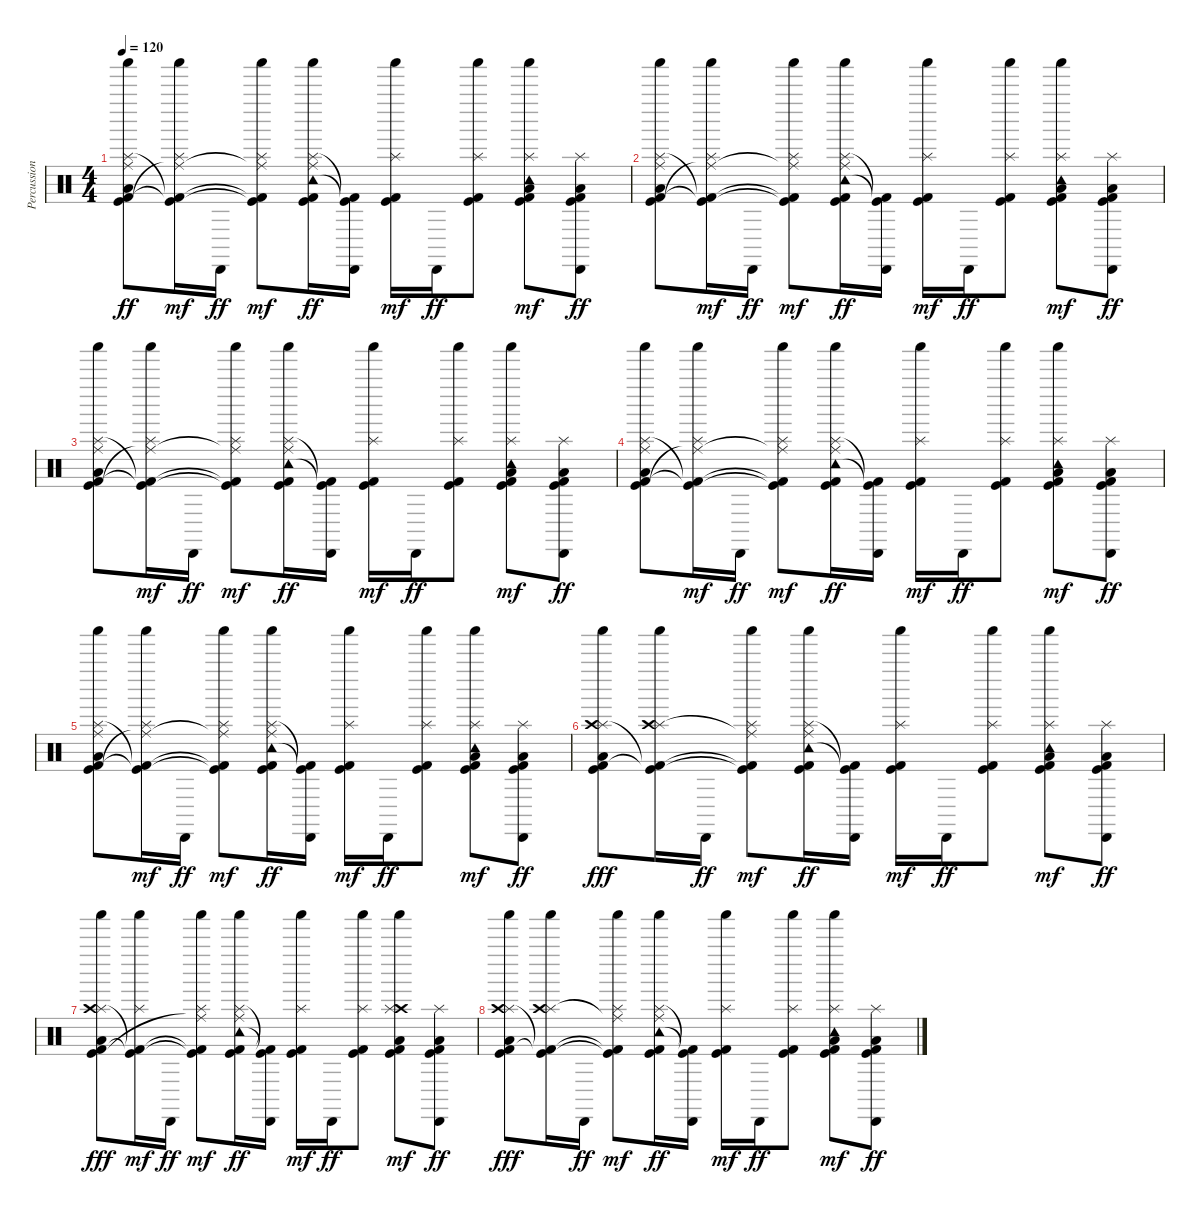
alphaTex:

\track ("Percussion" "Percussion") {instrument percussion}
\staff {score}
\articulation defaults
\ts (4 4)
\tempo 120
\clef neutral
\ks c
("Shaker (hit)" "Low Tom (hit)" "Splash (hit)" "Kick (hit) 2" "Kick (hit)" "Ride (middle)").8{dy ff} ("Shaker (hit)" "Splash (hit)" "Kick (hit) 2"{t} "Kick (hit)"{t} "Ride (middle)"{t}).16{dy mf} "Cabasa (hit)".16{dy ff} ("Shaker (hit)" "Splash (hit)" "Kick (hit) 2"{t} "Kick (hit)"{t} "Ride (middle)"{t}).8{dy mf} ("Shaker (hit)" "Tambourine (hit)" "Splash (hit)" "Ride (middle)" "Kick (hit) 2" "Kick (hit)").16{dy ff} ("Cabasa (hit)" "Kick (hit)"{t} "Kick (hit) 2"{t}).16 ("Shaker (hit)" "Splash (hit)" "Kick (hit)" "Kick (hit) 2").16{dy mf} "Cabasa (hit)".16{dy ff} ("Shaker (hit)" "Splash (hit)" "Kick (hit)" "Kick (hit) 2").8 ("Shaker (hit)" "Tambourine (hit)" "Splash (hit)" "Low Tom (hit)" "Kick (hit) 2" "Kick (hit)").8{dy mf} ("Cabasa (hit)" "Splash (hit)" "Low Tom (hit)" "Kick (hit)" "Kick (hit) 2").8{dy ff} |
("Shaker (hit)" "Low Tom (hit)" "Splash (hit)" "Kick (hit) 2" "Kick (hit)" "Ride (middle)").8 ("Shaker (hit)" "Splash (hit)" "Kick (hit) 2"{t} "Kick (hit)"{t} "Ride (middle)"{t}).16{dy mf} "Cabasa (hit)".16{dy ff} ("Shaker (hit)" "Splash (hit)" "Kick (hit) 2"{t} "Kick (hit)"{t} "Ride (middle)"{t}).8{dy mf} ("Shaker (hit)" "Tambourine (hit)" "Splash (hit)" "Ride (middle)" "Kick (hit) 2" "Kick (hit)").16{dy ff} ("Cabasa (hit)" "Kick (hit)"{t} "Kick (hit) 2"{t}).16 ("Shaker (hit)" "Splash (hit)" "Kick (hit)" "Kick (hit) 2").16{dy mf} "Cabasa (hit)".16{dy ff} ("Shaker (hit)" "Splash (hit)" "Kick (hit)" "Kick (hit) 2").8 ("Shaker (hit)" "Tambourine (hit)" "Splash (hit)" "Low Tom (hit)" "Kick (hit) 2" "Kick (hit)").8{dy mf} ("Cabasa (hit)" "Splash (hit)" "Low Tom (hit)" "Kick (hit)" "Kick (hit) 2").8{dy ff} |
("Shaker (hit)" "Low Tom (hit)" "Splash (hit)" "Kick (hit) 2" "Kick (hit)" "Ride (middle)").8 ("Shaker (hit)" "Splash (hit)" "Kick (hit) 2"{t} "Kick (hit)"{t} "Ride (middle)"{t}).16{dy mf} "Cabasa (hit)".16{dy ff} ("Shaker (hit)" "Splash (hit)" "Kick (hit) 2"{t} "Kick (hit)"{t} "Ride (middle)"{t}).8{dy mf} ("Shaker (hit)" "Tambourine (hit)" "Splash (hit)" "Ride (middle)" "Kick (hit) 2" "Kick (hit)").16{dy ff} ("Cabasa (hit)" "Kick (hit)"{t} "Kick (hit) 2"{t}).16 ("Shaker (hit)" "Splash (hit)" "Kick (hit)" "Kick (hit) 2").16{dy mf} "Cabasa (hit)".16{dy ff} ("Shaker (hit)" "Splash (hit)" "Kick (hit)" "Kick (hit) 2").8 ("Shaker (hit)" "Tambourine (hit)" "Splash (hit)" "Low Tom (hit)" "Kick (hit) 2" "Kick (hit)").8{dy mf} ("Cabasa (hit)" "Splash (hit)" "Low Tom (hit)" "Kick (hit)" "Kick (hit) 2").8{dy ff} |
("Shaker (hit)" "Low Tom (hit)" "Splash (hit)" "Kick (hit) 2" "Kick (hit)" "Ride (middle)").8 ("Shaker (hit)" "Splash (hit)" "Kick (hit) 2"{t} "Kick (hit)"{t} "Ride (middle)"{t}).16{dy mf} "Cabasa (hit)".16{dy ff} ("Shaker (hit)" "Splash (hit)" "Kick (hit) 2"{t} "Kick (hit)"{t} "Ride (middle)"{t}).8{dy mf} ("Shaker (hit)" "Tambourine (hit)" "Splash (hit)" "Ride (middle)" "Kick (hit) 2" "Kick (hit)").16{dy ff} ("Cabasa (hit)" "Kick (hit)"{t} "Kick (hit) 2"{t}).16 ("Shaker (hit)" "Splash (hit)" "Kick (hit)" "Kick (hit) 2").16{dy mf} "Cabasa (hit)".16{dy ff} ("Shaker (hit)" "Splash (hit)" "Kick (hit)" "Kick (hit) 2").8 ("Shaker (hit)" "Tambourine (hit)" "Splash (hit)" "Low Tom (hit)" "Kick (hit) 2" "Kick (hit)").8{dy mf} ("Cabasa (hit)" "Splash (hit)" "Low Tom (hit)" "Kick (hit)" "Kick (hit) 2").8{dy ff} |
("Shaker (hit)" "Low Tom (hit)" "Splash (hit)" "Kick (hit) 2" "Kick (hit)" "Ride (middle)").8 ("Shaker (hit)" "Splash (hit)" "Kick (hit) 2"{t} "Kick (hit)"{t} "Ride (middle)"{t}).16{dy mf} "Cabasa (hit)".16{dy ff} ("Shaker (hit)" "Splash (hit)" "Kick (hit) 2"{t} "Kick (hit)"{t} "Ride (middle)"{t}).8{dy mf} ("Shaker (hit)" "Tambourine (hit)" "Splash (hit)" "Ride (middle)" "Kick (hit) 2" "Kick (hit)").16{dy ff} ("Cabasa (hit)" "Kick (hit)"{t} "Kick (hit) 2"{t}).16 ("Shaker (hit)" "Splash (hit)" "Kick (hit)" "Kick (hit) 2").16{dy mf} "Cabasa (hit)".16{dy ff} ("Shaker (hit)" "Splash (hit)" "Kick (hit)" "Kick (hit) 2").8 ("Shaker (hit)" "Tambourine (hit)" "Splash (hit)" "Low Tom (hit)" "Kick (hit) 2" "Kick (hit)").8{dy mf} ("Cabasa (hit)" "Splash (hit)" "Low Tom (hit)" "Kick (hit)" "Kick (hit) 2").8{dy ff} |
("Shaker (hit)" "Low Tom (hit)" "Splash (hit)" "Kick (hit) 2" "Kick (hit)" "Crash high (hit)").8{dy fff} ("Shaker (hit)" "Splash (hit)" "Kick (hit) 2"{t} "Kick (hit)"{t} "Crash high (hit)").16 "Cabasa (hit)".16{dy ff} ("Shaker (hit)" "Splash (hit)" "Kick (hit) 2"{t} "Kick (hit)"{t} "Ride (middle)"{t}).8{dy mf} ("Shaker (hit)" "Tambourine (hit)" "Splash (hit)" "Ride (middle)" "Kick (hit) 2" "Kick (hit)").16{dy ff} ("Cabasa (hit)" "Kick (hit)"{t} "Kick (hit) 2"{t}).16 ("Shaker (hit)" "Splash (hit)" "Kick (hit)" "Kick (hit) 2").16{dy mf} "Cabasa (hit)".16{dy ff} ("Shaker (hit)" "Splash (hit)" "Kick (hit)" "Kick (hit) 2").8 ("Shaker (hit)" "Tambourine (hit)" "Splash (hit)" "Low Tom (hit)" "Kick (hit) 2" "Kick (hit)").8{dy mf} ("Cabasa (hit)" "Splash (hit)" "Low Tom (hit)" "Kick (hit)" "Kick (hit) 2").8{dy ff} |
("Shaker (hit)" "Low Tom (hit)" "Splash (hit)" "Kick (hit) 2" "Kick (hit)" "Crash high (hit)").8{dy fff} ("Shaker (hit)" "Splash (hit)" "Kick (hit) 2"{t} "Kick (hit)"{t}).16{dy mf} "Cabasa (hit)".16{dy ff} ("Shaker (hit)" "Splash (hit)" "Kick (hit) 2"{t} "Kick (hit)"{t} "Ride (middle)"{t}).8{dy mf} ("Shaker (hit)" "Tambourine (hit)" "Splash (hit)" "Ride (middle)" "Kick (hit) 2" "Kick (hit)").16{dy ff} ("Cabasa (hit)" "Kick (hit)"{t} "Kick (hit) 2"{t}).16 ("Shaker (hit)" "Splash (hit)" "Kick (hit)" "Kick (hit) 2").16{dy mf} "Cabasa (hit)".16{dy ff} ("Shaker (hit)" "Splash (hit)" "Kick (hit)" "Kick (hit) 2").8 ("Shaker (hit)" "Crash high (hit)" "Splash (hit)" "Low Tom (hit)" "Kick (hit) 2" "Kick (hit)").8{dy mf} ("Cabasa (hit)" "Splash (hit)" "Low Tom (hit)" "Kick (hit)" "Kick (hit) 2").8{dy ff} |
("Shaker (hit)" "Low Tom (hit)" "Splash (hit)" "Kick (hit) 2" "Kick (hit)" "Crash high (hit)").8{dy fff} ("Shaker (hit)" "Splash (hit)" "Kick (hit) 2"{t} "Kick (hit)"{t} "Crash high (hit)").16 "Cabasa (hit)".16{dy ff} ("Shaker (hit)" "Splash (hit)" "Kick (hit) 2"{t} "Kick (hit)"{t} "Ride (middle)"{t}).8{dy mf} ("Shaker (hit)" "Tambourine (hit)" "Splash (hit)" "Ride (middle)" "Kick (hit) 2" "Kick (hit)").16{dy ff} ("Cabasa (hit)" "Kick (hit)"{t} "Kick (hit) 2"{t}).16 ("Shaker (hit)" "Splash (hit)" "Kick (hit)" "Kick (hit) 2").16{dy mf} "Cabasa (hit)".16{dy ff} ("Shaker (hit)" "Splash (hit)" "Kick (hit)" "Kick (hit) 2").8 ("Shaker (hit)" "Tambourine (hit)" "Splash (hit)" "Low Tom (hit)" "Kick (hit) 2" "Kick (hit)").8{dy mf} ("Cabasa (hit)" "Splash (hit)" "Low Tom (hit)" "Kick (hit)" "Kick (hit) 2").8{dy ff}
